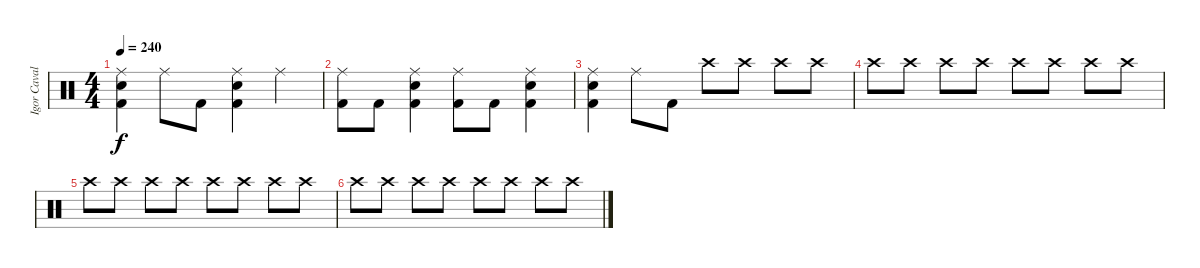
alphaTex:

\track ("Igor Cavalera" "Igor Caval") {instrument percussion}
\staff {score}
\articulation defaults
\ts (4 4)
\tempo 240
\clef neutral
\ks c
("Kick (hit) 2" "Snare (hit) 2" "Ride (middle)").4{dy f} "Ride (middle)".8 "Kick (hit) 2".8 ("Kick (hit) 2" "Snare (hit) 2" "Ride (middle)").4 "Ride (middle)".4 |
("Kick (hit) 2" "Ride (middle)").8 "Kick (hit) 2".8 ("Kick (hit) 2" "Snare (hit) 2" "Ride (middle)").4 ("Kick (hit) 2" "Ride (middle)").8 "Kick (hit) 2".8 ("Kick (hit) 2" "Snare (hit) 2" "Ride (middle)").4 |
("Kick (hit) 2" "Snare (hit) 2" "Ride (middle)").4 "Ride (middle)".8 "Kick (hit) 2".8 "Crash high (hit)".8 "Crash high (hit)".8 "Crash high (hit)".8 "Crash high (hit)".8 |
"Crash high (hit)".8 "Crash high (hit)".8 "Crash high (hit)".8 "Crash high (hit)".8 "Crash high (hit)".8 "Crash high (hit)".8 "Crash high (hit)".8 "Crash high (hit)".8 |
"Crash high (hit)".8 "Crash high (hit)".8 "Crash high (hit)".8 "Crash high (hit)".8 "Crash high (hit)".8 "Crash high (hit)".8 "Crash high (hit)".8 "Crash high (hit)".8 |
"Crash high (hit)".8 "Crash high (hit)".8 "Crash high (hit)".8 "Crash high (hit)".8 "Crash high (hit)".8 "Crash high (hit)".8 "Crash high (hit)".8 "Crash high (hit)".8
